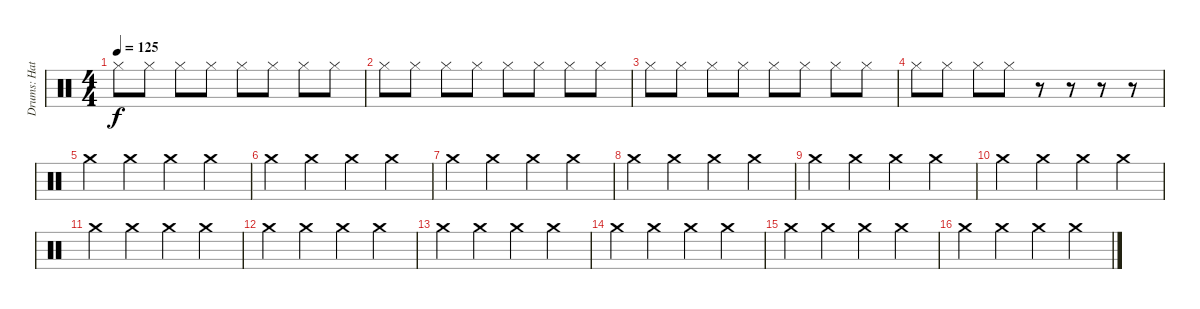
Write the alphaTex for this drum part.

\track ("Drums: Hats, Etc" "Drums: Hat") {instrument percussion}
\staff {score}
\articulation defaults
\ts (4 4)
\tempo 125
\clef neutral
\ks c "Hi-Hat (closed)".8{dy f} "Hi-Hat (closed)".8 "Hi-Hat (closed)".8 "Hi-Hat (closed)".8 "Hi-Hat (closed)".8 "Hi-Hat (closed)".8 "Hi-Hat (closed)".8 "Hi-Hat (closed)".8
|
"Hi-Hat (closed)".8 "Hi-Hat (closed)".8 "Hi-Hat (closed)".8 "Hi-Hat (closed)".8 "Hi-Hat (closed)".8 "Hi-Hat (closed)".8 "Hi-Hat (closed)".8 "Hi-Hat (closed)".8 |
"Hi-Hat (closed)".8 "Hi-Hat (closed)".8 "Hi-Hat (closed)".8 "Hi-Hat (closed)".8 "Hi-Hat (closed)".8 "Hi-Hat (closed)".8 "Hi-Hat (closed)".8 "Hi-Hat (closed)".8 |
"Hi-Hat (closed)".8 "Hi-Hat (closed)".8 "Hi-Hat (closed)".8 "Hi-Hat (closed)".8 r.8 r.8 r.8 r.8 |
"Crash medium (hit)".4 "Crash medium (hit)".4 "Crash medium (hit)".4 "Crash medium (hit)".4 |
"Crash medium (hit)".4 "Crash medium (hit)".4 "Crash medium (hit)".4 "Crash medium (hit)".4 |
"Crash medium (hit)".4 "Crash medium (hit)".4 "Crash medium (hit)".4 "Crash medium (hit)".4 |
"Crash medium (hit)".4 "Crash medium (hit)".4 "Crash medium (hit)".4 "Crash medium (hit)".4 |
"Crash medium (hit)".4 "Crash medium (hit)".4 "Crash medium (hit)".4 "Crash medium (hit)".4 |
"Crash medium (hit)".4 "Crash medium (hit)".4 "Crash medium (hit)".4 "Crash medium (hit)".4 |
"Crash medium (hit)".4 "Crash medium (hit)".4 "Crash medium (hit)".4 "Crash medium (hit)".4 |
"Crash medium (hit)".4 "Crash medium (hit)".4 "Crash medium (hit)".4 "Crash medium (hit)".4 |
"Crash medium (hit)".4 "Crash medium (hit)".4 "Crash medium (hit)".4 "Crash medium (hit)".4 |
"Crash medium (hit)".4 "Crash medium (hit)".4 "Crash medium (hit)".4 "Crash medium (hit)".4 |
"Crash medium (hit)".4 "Crash medium (hit)".4 "Crash medium (hit)".4 "Crash medium (hit)".4 |
"Crash medium (hit)".4 "Crash medium (hit)".4 "Crash medium (hit)".4 "Crash medium (hit)".4
